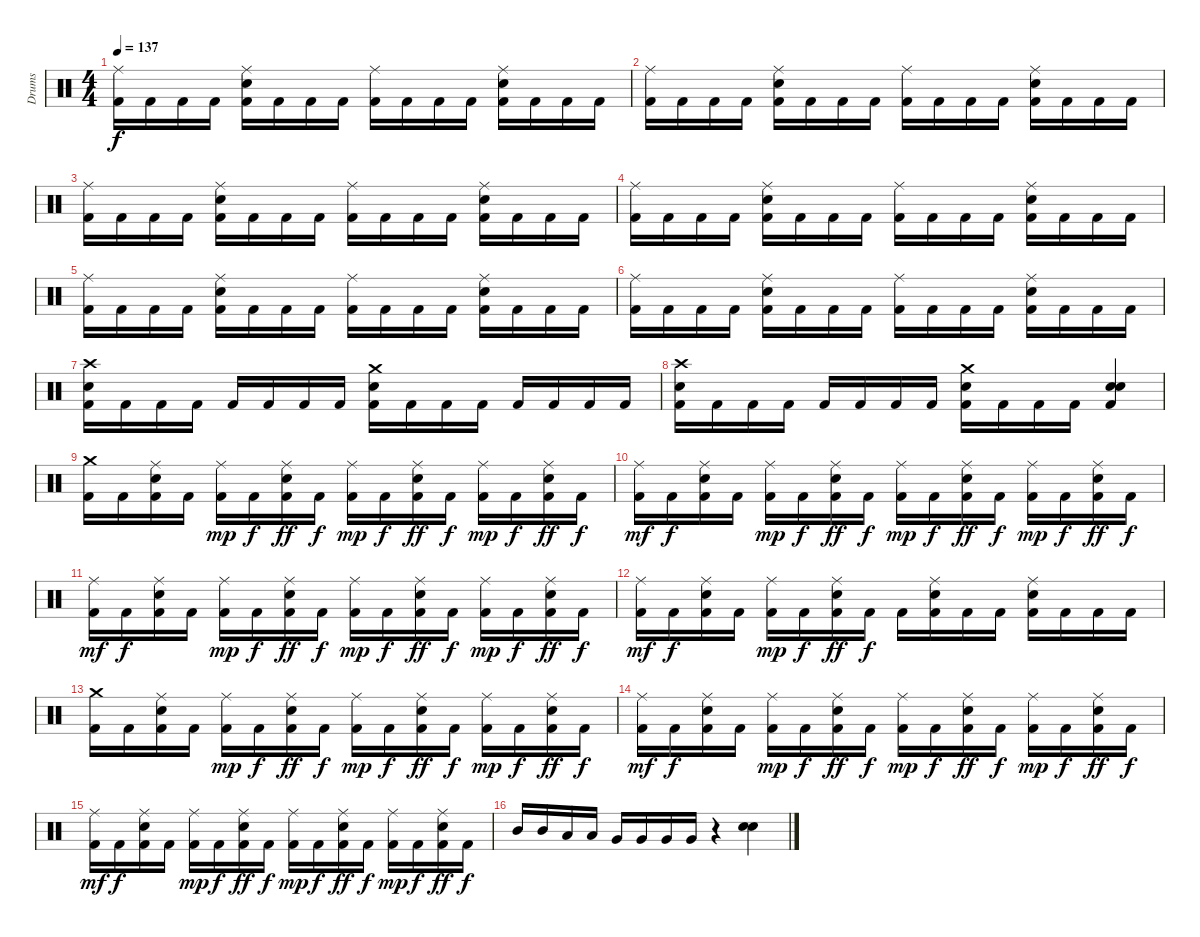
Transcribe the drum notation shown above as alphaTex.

\track ("Drums" "Drums") {instrument percussion}
\staff {score}
\articulation defaults
\ts (4 4)
\tempo 137
\clef neutral
\ks c
("Ride (middle)" "Kick (hit) 2").16{dy f} "Kick (hit) 2".16 "Kick (hit) 2".16 "Kick (hit) 2".16 ("Ride (middle)" "Electric Snare (hit)" "Kick (hit) 2").16 "Kick (hit) 2".16 "Kick (hit) 2".16 "Kick (hit) 2".16 ("Ride (middle)" "Kick (hit) 2").16 "Kick (hit) 2".16 "Kick (hit) 2".16 "Kick (hit) 2".16 ("Ride (middle)" "Electric Snare (hit)" "Kick (hit) 2").16 "Kick (hit) 2".16 "Kick (hit) 2".16 "Kick (hit) 2".16 |
("Ride (middle)" "Kick (hit) 2").16 "Kick (hit) 2".16 "Kick (hit) 2".16 "Kick (hit) 2".16 ("Ride (middle)" "Electric Snare (hit)" "Kick (hit) 2").16 "Kick (hit) 2".16 "Kick (hit) 2".16 "Kick (hit) 2".16 ("Ride (middle)" "Kick (hit) 2").16 "Kick (hit) 2".16 "Kick (hit) 2".16 "Kick (hit) 2".16 ("Ride (middle)" "Electric Snare (hit)" "Kick (hit) 2").16 "Kick (hit) 2".16 "Kick (hit) 2".16 "Kick (hit) 2".16 |
("Ride (middle)" "Kick (hit) 2").16 "Kick (hit) 2".16 "Kick (hit) 2".16 "Kick (hit) 2".16 ("Ride (middle)" "Electric Snare (hit)" "Kick (hit) 2").16 "Kick (hit) 2".16 "Kick (hit) 2".16 "Kick (hit) 2".16 ("Ride (middle)" "Kick (hit) 2").16 "Kick (hit) 2".16 "Kick (hit) 2".16 "Kick (hit) 2".16 ("Ride (middle)" "Electric Snare (hit)" "Kick (hit) 2").16 "Kick (hit) 2".16 "Kick (hit) 2".16 "Kick (hit) 2".16 |
("Ride (middle)" "Kick (hit) 2").16 "Kick (hit) 2".16 "Kick (hit) 2".16 "Kick (hit) 2".16 ("Ride (middle)" "Electric Snare (hit)" "Kick (hit) 2").16 "Kick (hit) 2".16 "Kick (hit) 2".16 "Kick (hit) 2".16 ("Ride (middle)" "Kick (hit) 2").16 "Kick (hit) 2".16 "Kick (hit) 2".16 "Kick (hit) 2".16 ("Ride (middle)" "Electric Snare (hit)" "Kick (hit) 2").16 "Kick (hit) 2".16 "Kick (hit) 2".16 "Kick (hit) 2".16 |
("Ride (middle)" "Kick (hit) 2").16 "Kick (hit) 2".16 "Kick (hit) 2".16 "Kick (hit) 2".16 ("Ride (middle)" "Electric Snare (hit)" "Kick (hit) 2").16 "Kick (hit) 2".16 "Kick (hit) 2".16 "Kick (hit) 2".16 ("Ride (middle)" "Kick (hit) 2").16 "Kick (hit) 2".16 "Kick (hit) 2".16 "Kick (hit) 2".16 ("Ride (middle)" "Electric Snare (hit)" "Kick (hit) 2").16 "Kick (hit) 2".16 "Kick (hit) 2".16 "Kick (hit) 2".16 |
("Ride (middle)" "Kick (hit) 2").16 "Kick (hit) 2".16 "Kick (hit) 2".16 "Kick (hit) 2".16 ("Ride (middle)" "Electric Snare (hit)" "Kick (hit) 2").16 "Kick (hit) 2".16 "Kick (hit) 2".16 "Kick (hit) 2".16 ("Ride (middle)" "Kick (hit) 2").16 "Kick (hit) 2".16 "Kick (hit) 2".16 "Kick (hit) 2".16 ("Ride (middle)" "Electric Snare (hit)" "Kick (hit) 2").16 "Kick (hit) 2".16 "Kick (hit) 2".16 "Kick (hit) 2".16 |
("Crash high (hit)" "Electric Snare (hit)" "Kick (hit) 2").16 "Kick (hit) 2".16 "Kick (hit) 2".16 "Kick (hit) 2".16 "Kick (hit) 2".16 "Kick (hit) 2".16 "Kick (hit) 2".16 "Kick (hit) 2".16 ("Crash medium (hit)" "Electric Snare (hit)" "Kick (hit) 2").16 "Kick (hit) 2".16 "Kick (hit) 2".16 "Kick (hit) 2".16 "Kick (hit) 2".16 "Kick (hit) 2".16 "Kick (hit) 2".16 "Kick (hit) 2".16 |
("Crash high (hit)" "Electric Snare (hit)" "Kick (hit) 2").16 "Kick (hit) 2".16 "Kick (hit) 2".16 "Kick (hit) 2".16 "Kick (hit) 2".16 "Kick (hit) 2".16 "Kick (hit) 2".16 "Kick (hit) 2".16 ("Crash medium (hit)" "Electric Snare (hit)" "Kick (hit) 2").16 "Kick (hit) 2".16 "Kick (hit) 2".16 "Kick (hit) 2".16 ("Snare (hit) 2" "Electric Snare (hit)" "Kick (hit) 2").4 |
("Crash medium (hit)" "Kick (hit) 2").16 "Kick (hit) 2".16 ("Ride (middle)" "Electric Snare (hit)" "Kick (hit) 2").16 "Kick (hit) 2".16 ("Ride (middle)" "Kick (hit) 2").16{dy mp} "Kick (hit) 2".16{dy f} ("Ride (middle)" "Electric Snare (hit)" "Kick (hit) 2").16{dy ff} "Kick (hit) 2".16{dy f} ("Ride (middle)" "Kick (hit) 2").16{dy mp} "Kick (hit) 2".16{dy f} ("Ride (middle)" "Electric Snare (hit)" "Kick (hit) 2").16{dy ff} "Kick (hit) 2".16{dy f} ("Ride (middle)" "Kick (hit) 2").16{dy mp} "Kick (hit) 2".16{dy f} ("Ride (middle)" "Electric Snare (hit)" "Kick (hit) 2").16{dy ff} "Kick (hit) 2".16{dy f} |
("Ride (middle)" "Kick (hit) 2").16{dy mf} "Kick (hit) 2".16{dy f} ("Ride (middle)" "Electric Snare (hit)" "Kick (hit) 2").16 "Kick (hit) 2".16 ("Ride (middle)" "Kick (hit) 2").16{dy mp} "Kick (hit) 2".16{dy f} ("Ride (middle)" "Electric Snare (hit)" "Kick (hit) 2").16{dy ff} "Kick (hit) 2".16{dy f} ("Ride (middle)" "Kick (hit) 2").16{dy mp} "Kick (hit) 2".16{dy f} ("Ride (middle)" "Electric Snare (hit)" "Kick (hit) 2").16{dy ff} "Kick (hit) 2".16{dy f} ("Ride (middle)" "Kick (hit) 2").16{dy mp} "Kick (hit) 2".16{dy f} ("Ride (middle)" "Electric Snare (hit)" "Kick (hit) 2").16{dy ff} "Kick (hit) 2".16{dy f} |
("Ride (middle)" "Kick (hit) 2").16{dy mf} "Kick (hit) 2".16{dy f} ("Ride (middle)" "Electric Snare (hit)" "Kick (hit) 2").16 "Kick (hit) 2".16 ("Ride (middle)" "Kick (hit) 2").16{dy mp} "Kick (hit) 2".16{dy f} ("Ride (middle)" "Electric Snare (hit)" "Kick (hit) 2").16{dy ff} "Kick (hit) 2".16{dy f} ("Ride (middle)" "Kick (hit) 2").16{dy mp} "Kick (hit) 2".16{dy f} ("Ride (middle)" "Electric Snare (hit)" "Kick (hit) 2").16{dy ff} "Kick (hit) 2".16{dy f} ("Ride (middle)" "Kick (hit) 2").16{dy mp} "Kick (hit) 2".16{dy f} ("Ride (middle)" "Electric Snare (hit)" "Kick (hit) 2").16{dy ff} "Kick (hit) 2".16{dy f} |
("Ride (middle)" "Kick (hit) 2").16{dy mf} "Kick (hit) 2".16{dy f} ("Ride (middle)" "Electric Snare (hit)" "Kick (hit) 2").16 "Kick (hit) 2".16 ("Ride (middle)" "Kick (hit) 2").16{dy mp} "Kick (hit) 2".16{dy f} ("Ride (middle)" "Electric Snare (hit)" "Kick (hit) 2").16{dy ff} "Kick (hit) 2".16{dy f} "Kick (hit) 2".16 ("Ride (middle)" "Electric Snare (hit)" "Kick (hit) 2").16 "Kick (hit) 2".16 "Kick (hit) 2".16 ("Ride (middle)" "Electric Snare (hit)" "Kick (hit) 2").16 "Kick (hit) 2".16 "Kick (hit) 2".16 "Kick (hit) 2".16 |
("Crash medium (hit)" "Kick (hit) 2").16 "Kick (hit) 2".16 ("Ride (middle)" "Electric Snare (hit)" "Kick (hit) 2").16 "Kick (hit) 2".16 ("Ride (middle)" "Kick (hit) 2").16{dy mp} "Kick (hit) 2".16{dy f} ("Ride (middle)" "Electric Snare (hit)" "Kick (hit) 2").16{dy ff} "Kick (hit) 2".16{dy f} ("Ride (middle)" "Kick (hit) 2").16{dy mp} "Kick (hit) 2".16{dy f} ("Ride (middle)" "Electric Snare (hit)" "Kick (hit) 2").16{dy ff} "Kick (hit) 2".16{dy f} ("Ride (middle)" "Kick (hit) 2").16{dy mp} "Kick (hit) 2".16{dy f} ("Ride (middle)" "Electric Snare (hit)" "Kick (hit) 2").16{dy ff} "Kick (hit) 2".16{dy f} |
("Ride (middle)" "Kick (hit) 2").16{dy mf} "Kick (hit) 2".16{dy f} ("Ride (middle)" "Electric Snare (hit)" "Kick (hit) 2").16 "Kick (hit) 2".16 ("Ride (middle)" "Kick (hit) 2").16{dy mp} "Kick (hit) 2".16{dy f} ("Ride (middle)" "Electric Snare (hit)" "Kick (hit) 2").16{dy ff} "Kick (hit) 2".16{dy f} ("Ride (middle)" "Kick (hit) 2").16{dy mp} "Kick (hit) 2".16{dy f} ("Ride (middle)" "Electric Snare (hit)" "Kick (hit) 2").16{dy ff} "Kick (hit) 2".16{dy f} ("Ride (middle)" "Kick (hit) 2").16{dy mp} "Kick (hit) 2".16{dy f} ("Ride (middle)" "Electric Snare (hit)" "Kick (hit) 2").16{dy ff} "Kick (hit) 2".16{dy f} |
("Ride (middle)" "Kick (hit) 2").16{dy mf} "Kick (hit) 2".16{dy f} ("Ride (middle)" "Electric Snare (hit)" "Kick (hit) 2").16 "Kick (hit) 2".16 ("Ride (middle)" "Kick (hit) 2").16{dy mp} "Kick (hit) 2".16{dy f} ("Ride (middle)" "Electric Snare (hit)" "Kick (hit) 2").16{dy ff} "Kick (hit) 2".16{dy f} ("Ride (middle)" "Kick (hit) 2").16{dy mp} "Kick (hit) 2".16{dy f} ("Ride (middle)" "Electric Snare (hit)" "Kick (hit) 2").16{dy ff} "Kick (hit) 2".16{dy f} ("Ride (middle)" "Kick (hit) 2").16{dy mp} "Kick (hit) 2".16{dy f} ("Ride (middle)" "Electric Snare (hit)" "Kick (hit) 2").16{dy ff} "Kick (hit) 2".16{dy f} |
"Mid Tom (hit)".16 "Mid Tom (hit)".16 "Low Tom (hit)".16 "Low Tom (hit)".16 "Very Low Tom (hit)".16 "Very Low Tom (hit)".16 "Very Low Tom (hit)".16 "Very Low Tom (hit)".16 r.4 ("Snare (hit) 2" "Electric Snare (hit)").4
